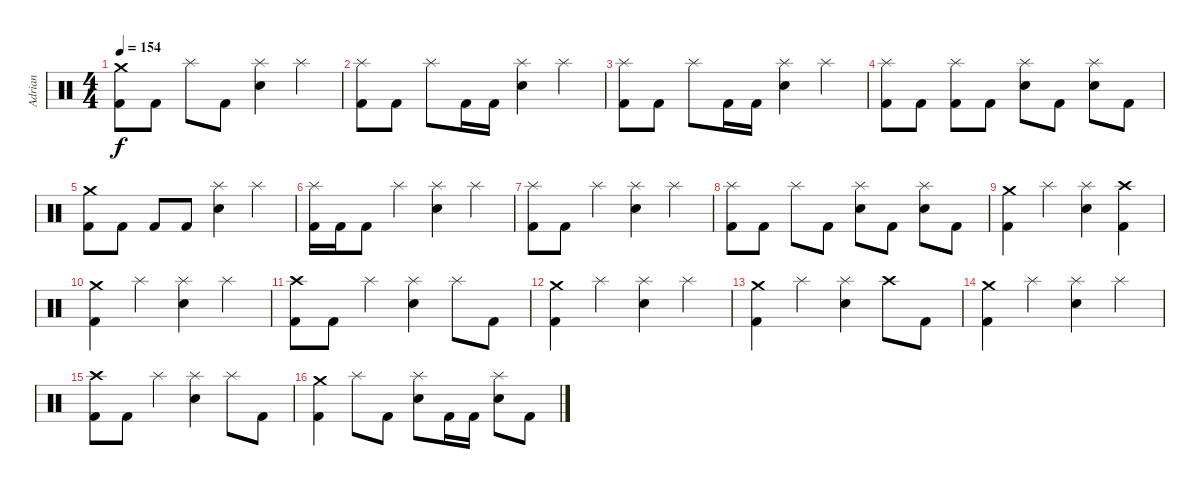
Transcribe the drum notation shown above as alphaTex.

\track ("Adrian" "Adrian") {instrument percussion}
\staff {score}
\articulation defaults
\ts (4 4)
\tempo 154
\clef neutral
\ks c
("Crash medium (hit)" "Kick (hit) 2").8{dy f} "Kick (hit) 2".8 "Splash (hit)".8 "Kick (hit) 2".8 ("Splash (hit)" "Electric Snare (hit)").4 "Splash (hit)".4 |
("Splash (hit)" "Kick (hit) 2").8 "Kick (hit) 2".8 "Splash (hit)".8 "Kick (hit) 2".16 "Kick (hit) 2".16 ("Splash (hit)" "Electric Snare (hit)").4 "Splash (hit)".4 |
("Splash (hit)" "Kick (hit) 2").8 "Kick (hit) 2".8 "Splash (hit)".8 "Kick (hit) 2".16 "Kick (hit) 2".16 ("Splash (hit)" "Electric Snare (hit)").4 "Splash (hit)".4 |
("Splash (hit)" "Kick (hit) 2").8 "Kick (hit) 2".8 ("Splash (hit)" "Kick (hit) 2").8 "Kick (hit) 2".8 ("Splash (hit)" "Electric Snare (hit)").8 "Kick (hit) 2".8 ("Splash (hit)" "Electric Snare (hit)").8 "Kick (hit) 2".8 |
("Crash medium (hit)" "Kick (hit) 2").8 "Kick (hit) 2".8 "Kick (hit) 2".8 "Kick (hit) 2".8 ("Splash (hit)" "Electric Snare (hit)").4 "Splash (hit)".4 |
("Splash (hit)" "Kick (hit) 2").16 "Kick (hit) 2".16 "Kick (hit) 2".8 "Splash (hit)".4 ("Splash (hit)" "Electric Snare (hit)").4 "Splash (hit)".4 |
("Splash (hit)" "Kick (hit) 2").8 "Kick (hit) 2".8 "Splash (hit)".4 ("Splash (hit)" "Electric Snare (hit)").4 "Splash (hit)".4 |
("Splash (hit)" "Kick (hit) 2").8 "Kick (hit) 2".8 "Splash (hit)".8 "Kick (hit) 2".8 ("Splash (hit)" "Electric Snare (hit)").8 "Kick (hit) 2".8 ("Splash (hit)" "Electric Snare (hit)").8 "Kick (hit) 2".8 |
("Crash medium (hit)" "Kick (hit) 2").4 "Splash (hit)".4 ("Splash (hit)" "Electric Snare (hit)").4 ("Crash high (hit)" "Kick (hit) 2").4 |
("Crash medium (hit)" "Kick (hit) 2").4 "Splash (hit)".4 ("Splash (hit)" "Electric Snare (hit)").4 "Splash (hit)".4 |
("Crash high (hit)" "Kick (hit) 2").8 "Kick (hit) 2".8 "Splash (hit)".4 ("Splash (hit)" "Electric Snare (hit)").4 "Splash (hit)".8 "Kick (hit) 2".8 |
("Crash medium (hit)" "Kick (hit) 2").4 "Splash (hit)".4 ("Splash (hit)" "Electric Snare (hit)").4 "Splash (hit)".4 |
("Crash medium (hit)" "Kick (hit) 2").4 "Splash (hit)".4 ("Splash (hit)" "Electric Snare (hit)").4 "Crash high (hit)".8 "Kick (hit) 2".8 |
("Crash medium (hit)" "Kick (hit) 2").4 "Splash (hit)".4 ("Splash (hit)" "Electric Snare (hit)").4 "Splash (hit)".4 |
("Crash high (hit)" "Kick (hit) 2").8 "Kick (hit) 2".8 "Splash (hit)".4 ("Splash (hit)" "Electric Snare (hit)").4 "Splash (hit)".8 "Kick (hit) 2".8 |
("Crash medium (hit)" "Kick (hit) 2").4 "Splash (hit)".8 "Kick (hit) 2".8 ("Splash (hit)" "Electric Snare (hit)").8 "Kick (hit) 2".16 "Kick (hit) 2".16 ("Splash (hit)" "Electric Snare (hit)").8 "Kick (hit) 2".8
